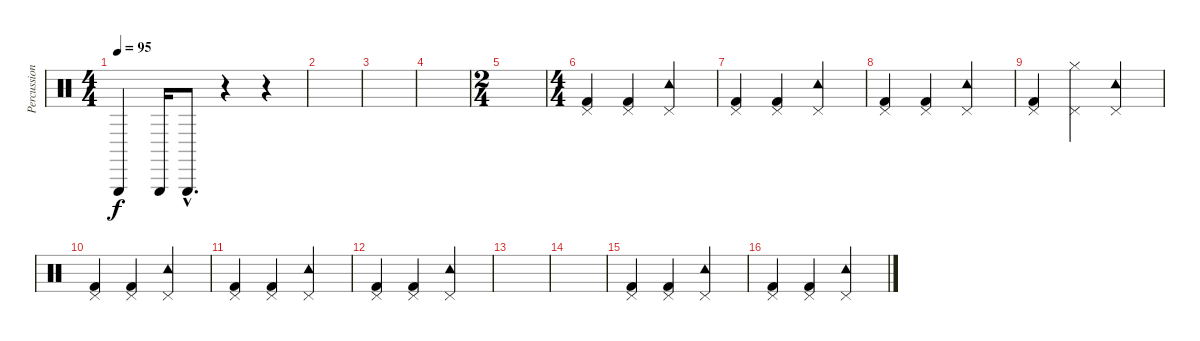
\track ("Percussions" "Percussion") {instrument percussion}
\staff {score}
\articulation defaults
\ts (4 4)
\tempo 95
\clef neutral
\ks c "Triangle (hit)".4{dy f} "Triangle (hit)".16 "Triangle (hit)"{hac}.8{d}
r.4 r.4 |
|
|
|
\ts (2 4)
|
\ts (4 4)
("Kick (hit) 2" "Pedal Hi-Hat (hit)").4 ("Kick (hit) 2" "Pedal Hi-Hat (hit)").4 ("Tambourine (hit)" "Pedal Hi-Hat (hit)").2 |
("Kick (hit) 2" "Pedal Hi-Hat (hit)").4 ("Kick (hit) 2" "Pedal Hi-Hat (hit)").4 ("Tambourine (hit)" "Pedal Hi-Hat (hit)").2 |
("Kick (hit) 2" "Pedal Hi-Hat (hit)").4 ("Kick (hit) 2" "Pedal Hi-Hat (hit)").4 ("Tambourine (hit)" "Pedal Hi-Hat (hit)").2 |
("Kick (hit) 2" "Pedal Hi-Hat (hit)").4 ("Hi-Hat (closed)" "Pedal Hi-Hat (hit)").4 ("Tambourine (hit)" "Pedal Hi-Hat (hit)").2 |
("Kick (hit) 2" "Pedal Hi-Hat (hit)").4 ("Kick (hit) 2" "Pedal Hi-Hat (hit)").4 ("Tambourine (hit)" "Pedal Hi-Hat (hit)").2 |
("Kick (hit) 2" "Pedal Hi-Hat (hit)").4 ("Kick (hit) 2" "Pedal Hi-Hat (hit)").4 ("Tambourine (hit)" "Pedal Hi-Hat (hit)").2 |
("Kick (hit) 2" "Pedal Hi-Hat (hit)").4 ("Kick (hit) 2" "Pedal Hi-Hat (hit)").4 ("Tambourine (hit)" "Pedal Hi-Hat (hit)").2 |
|
|
("Kick (hit) 2" "Pedal Hi-Hat (hit)").4 ("Kick (hit) 2" "Pedal Hi-Hat (hit)").4 ("Tambourine (hit)" "Pedal Hi-Hat (hit)").2 |
("Kick (hit) 2" "Pedal Hi-Hat (hit)").4 ("Kick (hit) 2" "Pedal Hi-Hat (hit)").4 ("Tambourine (hit)" "Pedal Hi-Hat (hit)").2
